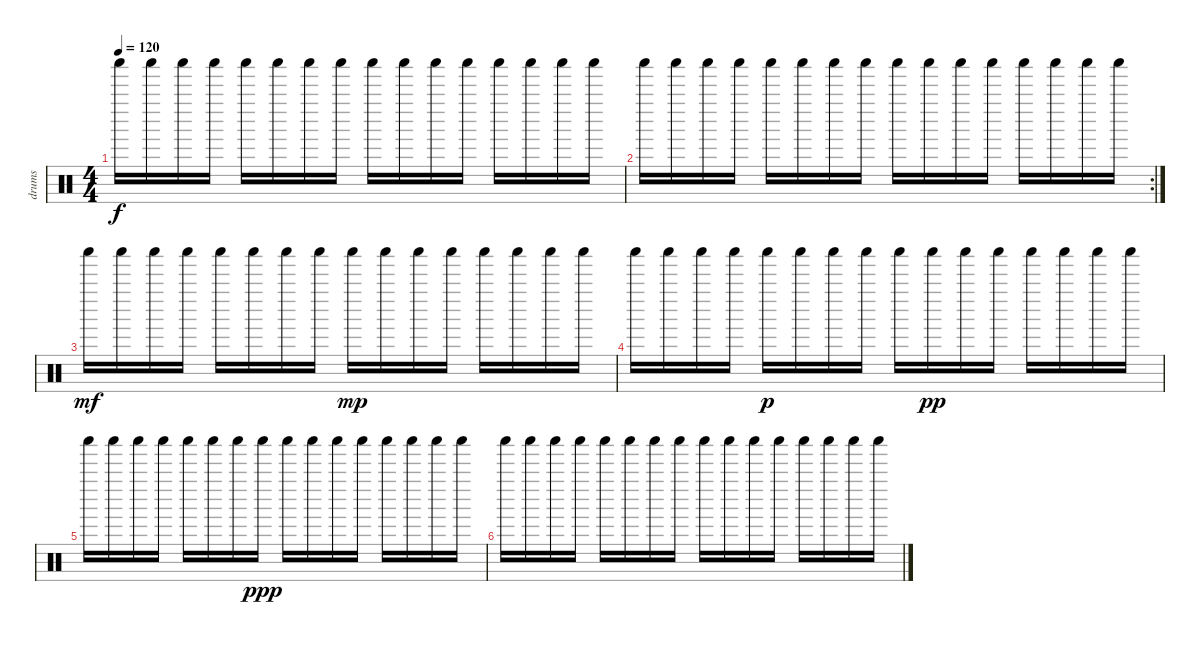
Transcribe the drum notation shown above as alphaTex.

\track ("drums" "drums") {instrument percussion}
\staff {score}
\articulation defaults
\ts (4 4)
\tempo 120
\clef neutral
\ks c "Shaker (hit)".16{dy f} "Shaker (hit)".16 "Shaker (hit)".16 "Shaker (hit)".16 "Shaker (hit)".16 "Shaker (hit)".16 "Shaker (hit)".16 "Shaker (hit)".16 "Shaker (hit)".16 "Shaker (hit)".16 "Shaker (hit)".16 "Shaker (hit)".16 "Shaker (hit)".16 "Shaker (hit)".16 "Shaker (hit)".16 "Shaker (hit)".16
|
\rc 2 "Shaker (hit)".16 "Shaker (hit)".16 "Shaker (hit)".16 "Shaker (hit)".16 "Shaker (hit)".16 "Shaker (hit)".16 "Shaker (hit)".16 "Shaker (hit)".16 "Shaker (hit)".16 "Shaker (hit)".16 "Shaker (hit)".16 "Shaker (hit)".16 "Shaker (hit)".16 "Shaker (hit)".16 "Shaker (hit)".16 "Shaker (hit)".16
|
"Shaker (hit)".16{dy mf} "Shaker (hit)".16 "Shaker (hit)".16 "Shaker (hit)".16 "Shaker (hit)".16 "Shaker (hit)".16 "Shaker (hit)".16 "Shaker (hit)".16 "Shaker (hit)".16{dy mp} "Shaker (hit)".16 "Shaker (hit)".16 "Shaker (hit)".16 "Shaker (hit)".16 "Shaker (hit)".16 "Shaker (hit)".16 "Shaker (hit)".16 |
"Shaker (hit)".16 "Shaker (hit)".16 "Shaker (hit)".16 "Shaker (hit)".16 "Shaker (hit)".16{dy p} "Shaker (hit)".16 "Shaker (hit)".16 "Shaker (hit)".16 "Shaker (hit)".16 "Shaker (hit)".16{dy pp} "Shaker (hit)".16 "Shaker (hit)".16 "Shaker (hit)".16 "Shaker (hit)".16 "Shaker (hit)".16 "Shaker (hit)".16 |
"Shaker (hit)".16 "Shaker (hit)".16 "Shaker (hit)".16 "Shaker (hit)".16 "Shaker (hit)".16 "Shaker (hit)".16 "Shaker (hit)".16 "Shaker (hit)".16{dy ppp} "Shaker (hit)".16 "Shaker (hit)".16 "Shaker (hit)".16 "Shaker (hit)".16 "Shaker (hit)".16 "Shaker (hit)".16 "Shaker (hit)".16 "Shaker (hit)".16 |
"Shaker (hit)".16 "Shaker (hit)".16 "Shaker (hit)".16 "Shaker (hit)".16 "Shaker (hit)".16 "Shaker (hit)".16 "Shaker (hit)".16 "Shaker (hit)".16 "Shaker (hit)".16 "Shaker (hit)".16 "Shaker (hit)".16 "Shaker (hit)".16 "Shaker (hit)".16 "Shaker (hit)".16 "Shaker (hit)".16 "Shaker (hit)".16
